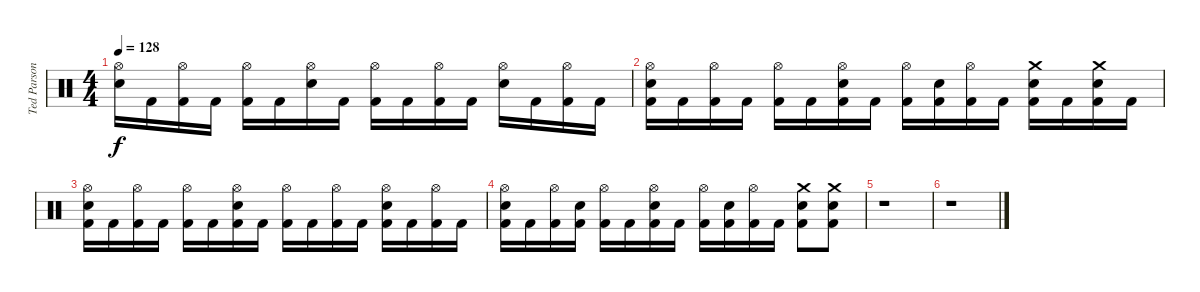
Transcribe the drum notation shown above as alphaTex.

\track ("Ted Parsons" "Ted Parson") {instrument percussion}
\staff {score}
\articulation defaults
\ts (4 4)
\tempo 128
\clef neutral
\ks c
("Hi-Hat (open)" "Electric Snare (hit)").16{dy f} "Kick (hit) 2".16 ("Hi-Hat (open)" "Kick (hit) 2").16 "Kick (hit) 2".16 ("Hi-Hat (open)" "Kick (hit) 2").16 "Kick (hit) 2".16 ("Hi-Hat (open)" "Electric Snare (hit)").16 "Kick (hit) 2".16 ("Hi-Hat (open)" "Kick (hit) 2").16 "Kick (hit) 2".16 ("Hi-Hat (open)" "Kick (hit) 2").16 "Kick (hit) 2".16 ("Hi-Hat (open)" "Electric Snare (hit)").16 "Kick (hit) 2".16 ("Hi-Hat (open)" "Kick (hit) 2").16 "Kick (hit) 2".16 |
("Hi-Hat (open)" "Electric Snare (hit)" "Kick (hit) 2").16 "Kick (hit) 2".16 ("Hi-Hat (open)" "Kick (hit) 2").16 "Kick (hit) 2".16 ("Hi-Hat (open)" "Kick (hit) 2").16 "Kick (hit) 2".16 ("Hi-Hat (open)" "Electric Snare (hit)" "Kick (hit) 2").16 "Kick (hit) 2".16 ("Hi-Hat (open)" "Kick (hit) 2").16 ("Electric Snare (hit)" "Kick (hit) 2").16 ("Hi-Hat (open)" "Kick (hit) 2").16 "Kick (hit) 2".16 ("Crash medium (hit)" "Electric Snare (hit)" "Kick (hit) 2").16 "Kick (hit) 2".16 ("Crash medium (hit)" "Electric Snare (hit)" "Kick (hit) 2").16 "Kick (hit) 2".16 |
("Hi-Hat (open)" "Electric Snare (hit)" "Kick (hit) 2").16 "Kick (hit) 2".16 ("Hi-Hat (open)" "Kick (hit) 2").16 "Kick (hit) 2".16 ("Hi-Hat (open)" "Kick (hit) 2").16 "Kick (hit) 2".16 ("Hi-Hat (open)" "Electric Snare (hit)" "Kick (hit) 2").16 "Kick (hit) 2".16 ("Hi-Hat (open)" "Kick (hit) 2").16 "Kick (hit) 2".16 ("Hi-Hat (open)" "Kick (hit) 2").16 "Kick (hit) 2".16 ("Hi-Hat (open)" "Electric Snare (hit)" "Kick (hit) 2").16 "Kick (hit) 2".16 ("Hi-Hat (open)" "Kick (hit) 2").16 "Kick (hit) 2".16 |
("Hi-Hat (open)" "Electric Snare (hit)" "Kick (hit) 2").16 "Kick (hit) 2".16 ("Hi-Hat (open)" "Kick (hit) 2").16 ("Electric Snare (hit)" "Kick (hit) 2").16 ("Hi-Hat (open)" "Kick (hit) 2").16 "Kick (hit) 2".16 ("Hi-Hat (open)" "Electric Snare (hit)" "Kick (hit) 2").16 "Kick (hit) 2".16 ("Hi-Hat (open)" "Kick (hit) 2").16 ("Electric Snare (hit)" "Kick (hit) 2").16 ("Hi-Hat (open)" "Kick (hit) 2").16 "Kick (hit) 2".16 ("Crash medium (hit)" "Electric Snare (hit)" "Kick (hit) 2").8 ("Crash medium (hit)" "Electric Snare (hit)" "Kick (hit) 2").8 |
r.1 |
r.1
